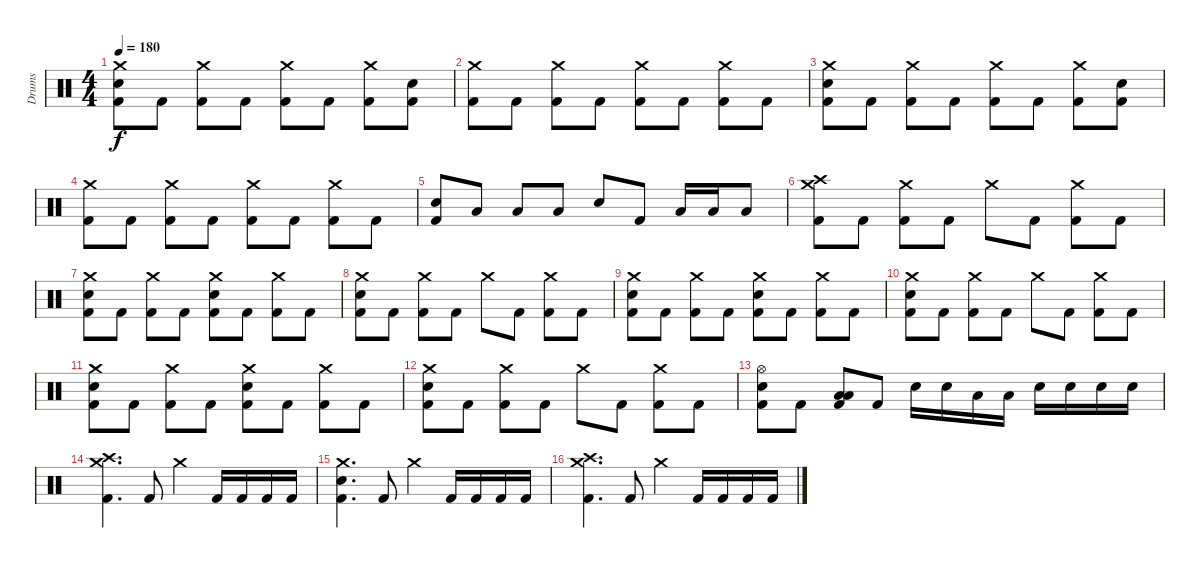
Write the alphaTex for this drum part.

\track ("Drums" "Drums") {instrument percussion}
\staff {score}
\articulation defaults
\ts (4 4)
\tempo 180
\clef neutral
\ks c
("Crash medium (hit)" "Snare (hit) 2" "Kick (hit) 2").8{dy f} "Kick (hit) 2".8 ("Crash medium (hit)" "Kick (hit) 2").8 "Kick (hit) 2".8 ("Crash medium (hit)" "Kick (hit) 2").8 "Kick (hit) 2".8 ("Crash medium (hit)" "Kick (hit) 2").8 ("Snare (hit) 2" "Kick (hit) 2").8 |
("Crash medium (hit)" "Kick (hit) 2").8 "Kick (hit) 2".8 ("Crash medium (hit)" "Kick (hit) 2").8 "Kick (hit) 2".8 ("Crash medium (hit)" "Kick (hit) 2").8 "Kick (hit) 2".8 ("Crash medium (hit)" "Kick (hit) 2").8 "Kick (hit) 2".8 |
("Crash medium (hit)" "Snare (hit) 2" "Kick (hit) 2").8 "Kick (hit) 2".8 ("Crash medium (hit)" "Kick (hit) 2").8 "Kick (hit) 2".8 ("Crash medium (hit)" "Kick (hit) 2").8 "Kick (hit) 2".8 ("Crash medium (hit)" "Kick (hit) 2").8 ("Snare (hit) 2" "Kick (hit) 2").8 |
("Crash medium (hit)" "Kick (hit) 2").8 "Kick (hit) 2".8 ("Crash medium (hit)" "Kick (hit) 2").8 "Kick (hit) 2".8 ("Crash medium (hit)" "Kick (hit) 2").8 "Kick (hit) 2".8 ("Crash medium (hit)" "Kick (hit) 2").8 "Kick (hit) 2".8 |
("Snare (hit) 2" "Kick (hit) 2").8 "Low Tom (hit)".8 "Low Tom (hit)".8 "Low Floor Tom (hit)".8 "Snare (hit) 2".8 "Kick (hit) 2".8 "Low Floor Tom (hit)".16 "Low Floor Tom (hit)".16 "Low Floor Tom (hit)".8 |
("Crash medium (hit)" "Crash high (hit)" "Kick (hit) 2").8 "Kick (hit) 2".8 ("Crash medium (hit)" "Kick (hit) 2").8 "Kick (hit) 2".8 "Crash medium (hit)".8 "Kick (hit) 2".8 ("Crash medium (hit)" "Kick (hit) 2").8 "Kick (hit) 2".8 |
("Crash medium (hit)" "Snare (hit) 2" "Kick (hit) 2").8 "Kick (hit) 2".8 ("Crash medium (hit)" "Kick (hit) 2").8 "Kick (hit) 2".8 ("Crash medium (hit)" "Snare (hit) 2" "Kick (hit) 2").8 "Kick (hit) 2".8 ("Crash medium (hit)" "Kick (hit) 2").8 "Kick (hit) 2".8 |
("Crash medium (hit)" "Snare (hit) 2" "Kick (hit) 2").8 "Kick (hit) 2".8 ("Crash medium (hit)" "Kick (hit) 2").8 "Kick (hit) 2".8 "Crash medium (hit)".8 "Kick (hit) 2".8 ("Crash medium (hit)" "Kick (hit) 2").8 "Kick (hit) 2".8 |
("Crash medium (hit)" "Snare (hit) 2" "Kick (hit) 2").8 "Kick (hit) 2".8 ("Crash medium (hit)" "Kick (hit) 2").8 "Kick (hit) 2".8 ("Crash medium (hit)" "Snare (hit) 2" "Kick (hit) 2").8 "Kick (hit) 2".8 ("Crash medium (hit)" "Kick (hit) 2").8 "Kick (hit) 2".8 |
("Crash medium (hit)" "Snare (hit) 2" "Kick (hit) 2").8 "Kick (hit) 2".8 ("Crash medium (hit)" "Kick (hit) 2").8 "Kick (hit) 2".8 "Crash medium (hit)".8 "Kick (hit) 2".8 ("Crash medium (hit)" "Kick (hit) 2").8 "Kick (hit) 2".8 |
("Crash medium (hit)" "Snare (hit) 2" "Kick (hit) 2").8 "Kick (hit) 2".8 ("Crash medium (hit)" "Kick (hit) 2").8 "Kick (hit) 2".8 ("Crash medium (hit)" "Snare (hit) 2" "Kick (hit) 2").8 "Kick (hit) 2".8 ("Crash medium (hit)" "Kick (hit) 2").8 "Kick (hit) 2".8 |
("Crash medium (hit)" "Snare (hit) 2" "Kick (hit) 2").8 "Kick (hit) 2".8 ("Crash medium (hit)" "Kick (hit) 2").8 "Kick (hit) 2".8 "Crash medium (hit)".8 "Kick (hit) 2".8 ("Crash medium (hit)" "Kick (hit) 2").8 "Kick (hit) 2".8 |
("Hi-Hat (open)" "Snare (hit) 2" "Kick (hit) 2").8 "Kick (hit) 2".8 ("Low Tom (hit)" "Low Floor Tom (hit)" "Kick (hit) 2").8 "Kick (hit) 2".8 "Snare (hit) 2".16 "Snare (hit) 2".16 "Low Tom (hit)".16 "Low Tom (hit)".16 "Snare (hit) 2".16 "Snare (hit) 2".16 "Snare (hit) 2".16 "Snare (hit) 2".16 |
("Crash high (hit)" "Crash medium (hit)" "Kick (hit) 2").4{d} "Kick (hit) 2".8 "Crash medium (hit)".4 "Kick (hit) 2".16 "Kick (hit) 2".16 "Kick (hit) 2".16 "Kick (hit) 2".16 |
("Crash medium (hit)" "Snare (hit) 2" "Kick (hit) 2").4{d} "Kick (hit) 2".8 "Crash medium (hit)".4 "Kick (hit) 2".16 "Kick (hit) 2".16 "Kick (hit) 2".16 "Kick (hit) 2".16 |
("Crash medium (hit)" "Crash high (hit)" "Kick (hit) 2").4{d} "Kick (hit) 2".8 "Crash medium (hit)".4 "Kick (hit) 2".16 "Kick (hit) 2".16 "Kick (hit) 2".16 "Kick (hit) 2".16
